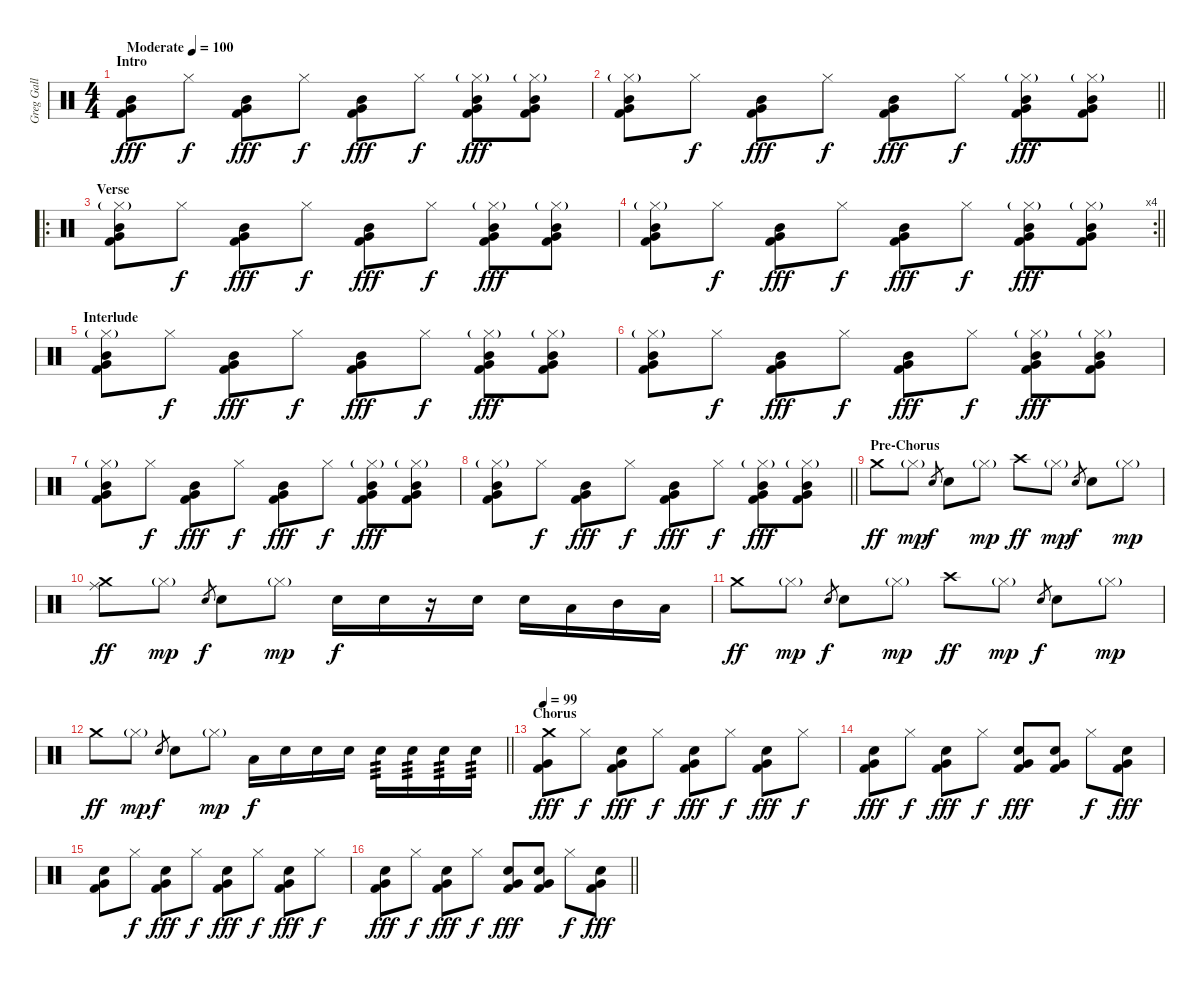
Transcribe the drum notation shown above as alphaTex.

\track ("Greg Gall" "Greg Gall") {instrument percussion}
\staff {score}
\articulation defaults
\ts (4 4)
\section ("" "Intro")
\tempo (100 "Moderate")
\clef neutral
\ks c
("Mid Tom (hit)" "Very Low Tom (hit)" "Kick (hit) 2").8{dy fff} "Hi-Hat (closed)".8{dy f} ("Mid Tom (hit)" "Very Low Tom (hit)" "Kick (hit) 2").8{dy fff} "Hi-Hat (closed)".8{dy f} ("Mid Tom (hit)" "Very Low Tom (hit)" "Kick (hit) 2").8{dy fff} "Hi-Hat (closed)".8{dy f} ("Mid Tom (hit)" "Hi-Hat (closed)"{g} "Very Low Tom (hit)" "Kick (hit) 2").8{dy fff} ("Mid Tom (hit)" "Hi-Hat (closed)"{g} "Very Low Tom (hit)" "Kick (hit) 2").8 |
\barLineRight lightlight
("Mid Tom (hit)" "Hi-Hat (closed)"{g} "Very Low Tom (hit)" "Kick (hit) 2").8 "Hi-Hat (closed)".8{dy f} ("Mid Tom (hit)" "Very Low Tom (hit)" "Kick (hit) 2").8{dy fff} "Hi-Hat (closed)".8{dy f} ("Mid Tom (hit)" "Very Low Tom (hit)" "Kick (hit) 2").8{dy fff} "Hi-Hat (closed)".8{dy f} ("Mid Tom (hit)" "Hi-Hat (closed)"{g} "Very Low Tom (hit)" "Kick (hit) 2").8{dy fff} ("Mid Tom (hit)" "Hi-Hat (closed)"{g} "Very Low Tom (hit)" "Kick (hit) 2").8 |
\ro
\section ("" "Verse")
("Mid Tom (hit)" "Hi-Hat (closed)"{g} "Very Low Tom (hit)" "Kick (hit) 2").8 "Hi-Hat (closed)".8{dy f} ("Mid Tom (hit)" "Very Low Tom (hit)" "Kick (hit) 2").8{dy fff} "Hi-Hat (closed)".8{dy f} ("Mid Tom (hit)" "Very Low Tom (hit)" "Kick (hit) 2").8{dy fff} "Hi-Hat (closed)".8{dy f} ("Mid Tom (hit)" "Hi-Hat (closed)"{g} "Very Low Tom (hit)" "Kick (hit) 2").8{dy fff} ("Mid Tom (hit)" "Hi-Hat (closed)"{g} "Very Low Tom (hit)" "Kick (hit) 2").8 |
\rc 4
\barLineRight lightlight
("Mid Tom (hit)" "Hi-Hat (closed)"{g} "Very Low Tom (hit)" "Kick (hit) 2").8 "Hi-Hat (closed)".8{dy f} ("Mid Tom (hit)" "Very Low Tom (hit)" "Kick (hit) 2").8{dy fff} "Hi-Hat (closed)".8{dy f} ("Mid Tom (hit)" "Very Low Tom (hit)" "Kick (hit) 2").8{dy fff} "Hi-Hat (closed)".8{dy f} ("Mid Tom (hit)" "Hi-Hat (closed)"{g} "Very Low Tom (hit)" "Kick (hit) 2").8{dy fff} ("Mid Tom (hit)" "Hi-Hat (closed)"{g} "Very Low Tom (hit)" "Kick (hit) 2").8 |
\section ("" "Interlude")
("Mid Tom (hit)" "Hi-Hat (closed)"{g} "Very Low Tom (hit)" "Kick (hit) 2").8 "Hi-Hat (closed)".8{dy f} ("Mid Tom (hit)" "Very Low Tom (hit)" "Kick (hit) 2").8{dy fff} "Hi-Hat (closed)".8{dy f} ("Mid Tom (hit)" "Very Low Tom (hit)" "Kick (hit) 2").8{dy fff} "Hi-Hat (closed)".8{dy f} ("Mid Tom (hit)" "Hi-Hat (closed)"{g} "Very Low Tom (hit)" "Kick (hit) 2").8{dy fff} ("Mid Tom (hit)" "Hi-Hat (closed)"{g} "Very Low Tom (hit)" "Kick (hit) 2").8 |
("Mid Tom (hit)" "Hi-Hat (closed)"{g} "Very Low Tom (hit)" "Kick (hit) 2").8 "Hi-Hat (closed)".8{dy f} ("Mid Tom (hit)" "Very Low Tom (hit)" "Kick (hit) 2").8{dy fff} "Hi-Hat (closed)".8{dy f} ("Mid Tom (hit)" "Very Low Tom (hit)" "Kick (hit) 2").8{dy fff} "Hi-Hat (closed)".8{dy f} ("Mid Tom (hit)" "Hi-Hat (closed)"{g} "Very Low Tom (hit)" "Kick (hit) 2").8{dy fff} ("Mid Tom (hit)" "Hi-Hat (closed)"{g} "Very Low Tom (hit)" "Kick (hit) 2").8 |
("Mid Tom (hit)" "Hi-Hat (closed)"{g} "Very Low Tom (hit)" "Kick (hit) 2").8 "Hi-Hat (closed)".8{dy f} ("Mid Tom (hit)" "Very Low Tom (hit)" "Kick (hit) 2").8{dy fff} "Hi-Hat (closed)".8{dy f} ("Mid Tom (hit)" "Very Low Tom (hit)" "Kick (hit) 2").8{dy fff} "Hi-Hat (closed)".8{dy f} ("Mid Tom (hit)" "Hi-Hat (closed)"{g} "Very Low Tom (hit)" "Kick (hit) 2").8{dy fff} ("Mid Tom (hit)" "Hi-Hat (closed)"{g} "Very Low Tom (hit)" "Kick (hit) 2").8 |
\barLineRight lightlight
("Mid Tom (hit)" "Hi-Hat (closed)"{g} "Very Low Tom (hit)" "Kick (hit) 2").8 "Hi-Hat (closed)".8{dy f} ("Mid Tom (hit)" "Very Low Tom (hit)" "Kick (hit) 2").8{dy fff} "Hi-Hat (closed)".8{dy f} ("Mid Tom (hit)" "Very Low Tom (hit)" "Kick (hit) 2").8{dy fff} "Hi-Hat (closed)".8{dy f} ("Mid Tom (hit)" "Hi-Hat (closed)"{g} "Very Low Tom (hit)" "Kick (hit) 2").8{dy fff} ("Mid Tom (hit)" "Hi-Hat (closed)"{g} "Very Low Tom (hit)" "Kick (hit) 2").8 |
\section ("" "Pre-Chorus")
"Crash medium (hit)".8{dy ff} "Hi-Hat (closed)"{g}.8{dy mp} "Electric Snare (hit)".8{gr dy f} "Electric Snare (hit)".8 "Hi-Hat (closed)"{g}.8{dy mp} "Crash high (hit)".8{dy ff} "Hi-Hat (closed)"{g}.8{dy mp} "Electric Snare (hit)".8{gr dy f} "Electric Snare (hit)".8 "Hi-Hat (closed)"{g}.8{dy mp} |
("Ride (middle)" "Crash medium (hit)").8{dy ff} "Hi-Hat (closed)"{g}.8{dy mp} "Electric Snare (hit)".8{gr dy f} "Electric Snare (hit)".8 "Hi-Hat (closed)"{g}.8{dy mp} "Electric Snare (hit)".16{dy f} "Electric Snare (hit)".16 r.16 "Electric Snare (hit)".16 "Electric Snare (hit)".16 "Low Tom (hit)".16 "Mid Tom (hit)".16 "Low Tom (hit)".16 |
"Crash medium (hit)".8{dy ff} "Hi-Hat (closed)"{g}.8{dy mp} "Electric Snare (hit)".8{gr dy f} "Electric Snare (hit)".8 "Hi-Hat (closed)"{g}.8{dy mp} "Crash high (hit)".8{dy ff} "Hi-Hat (closed)"{g}.8{dy mp} "Electric Snare (hit)".8{gr dy f} "Electric Snare (hit)".8 "Hi-Hat (closed)"{g}.8{dy mp} |
\barLineRight lightlight "Crash medium (hit)".8{dy ff} "Hi-Hat (closed)"{g}.8{dy mp} "Electric Snare (hit)".8{gr dy f} "Electric Snare (hit)".8 "Hi-Hat (closed)"{g}.8{dy mp} "Low Tom (hit)".16{dy f} "Electric Snare (hit)".16 "Electric Snare (hit)".16 "Electric Snare (hit)".16 "Electric Snare (hit)".16{tp 3} "Electric Snare (hit)".16{tp 3} "Electric Snare (hit)".16{tp 3} "Electric Snare (hit)".16{tp 3}
|
\section ("" "Chorus")
\tempo 99
("Crash medium (hit)" "Very Low Tom (hit)" "Kick (hit) 2").8{dy fff} "Hi-Hat (closed)".8{dy f} ("Electric Snare (hit)" "Very Low Tom (hit)" "Kick (hit) 2").8{dy fff} "Hi-Hat (closed)".8{dy f} ("Electric Snare (hit)" "Very Low Tom (hit)" "Kick (hit) 2").8{dy fff} "Hi-Hat (closed)".8{dy f} ("Electric Snare (hit)" "Very Low Tom (hit)" "Kick (hit) 2").8{dy fff} "Hi-Hat (closed)".8{dy f} |
("Electric Snare (hit)" "Very Low Tom (hit)" "Kick (hit) 2").8{dy fff} "Hi-Hat (closed)".8{dy f} ("Electric Snare (hit)" "Very Low Tom (hit)" "Kick (hit) 2").8{dy fff} "Hi-Hat (closed)".8{dy f} ("Electric Snare (hit)" "Very Low Tom (hit)" "Kick (hit) 2").8{dy fff} ("Electric Snare (hit)" "Very Low Tom (hit)" "Kick (hit) 2").8 "Hi-Hat (closed)".8{dy f} ("Electric Snare (hit)" "Very Low Tom (hit)" "Kick (hit) 2").8{dy fff} |
("Electric Snare (hit)" "Very Low Tom (hit)" "Kick (hit) 2").8 "Hi-Hat (closed)".8{dy f} ("Electric Snare (hit)" "Very Low Tom (hit)" "Kick (hit) 2").8{dy fff} "Hi-Hat (closed)".8{dy f} ("Electric Snare (hit)" "Very Low Tom (hit)" "Kick (hit) 2").8{dy fff} "Hi-Hat (closed)".8{dy f} ("Electric Snare (hit)" "Very Low Tom (hit)" "Kick (hit) 2").8{dy fff} "Hi-Hat (closed)".8{dy f} |
\barLineRight lightlight
("Electric Snare (hit)" "Very Low Tom (hit)" "Kick (hit) 2").8{dy fff} "Hi-Hat (closed)".8{dy f} ("Electric Snare (hit)" "Very Low Tom (hit)" "Kick (hit) 2").8{dy fff} "Hi-Hat (closed)".8{dy f} ("Electric Snare (hit)" "Very Low Tom (hit)" "Kick (hit) 2").8{dy fff} ("Electric Snare (hit)" "Very Low Tom (hit)" "Kick (hit) 2").8 "Hi-Hat (closed)".8{dy f} ("Electric Snare (hit)" "Very Low Tom (hit)" "Kick (hit) 2").8{dy fff}
